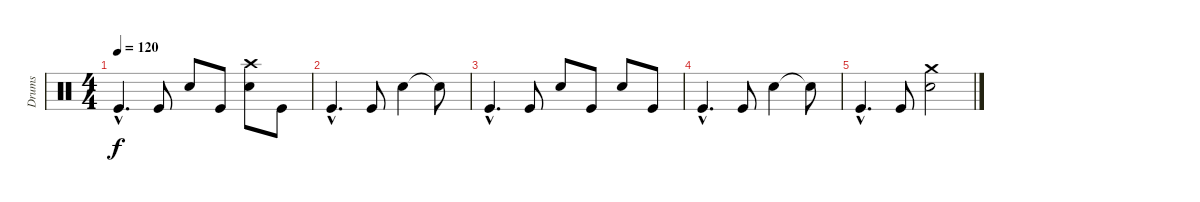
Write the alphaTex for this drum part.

\track ("Drums" "Drums") {instrument percussion}
\staff {score}
\articulation defaults
\ts (4 4)
\tempo 120
\clef neutral
\ks c "Kick (hit)"{hac}.4{d dy f} "Kick (hit)".8 "Electric Snare (hit)".8 "Kick (hit)".8
("Electric Snare (hit)" "Crash high (hit)").8 "Kick (hit)".8 |
"Kick (hit)"{hac}.4{d} "Kick (hit)".8 "Electric Snare (hit)".4 "Snare (hit)"{t}.8 |
"Kick (hit)"{hac}.4{d} "Kick (hit)".8 "Electric Snare (hit)".8 "Kick (hit)".8 "Electric Snare (hit)".8 "Kick (hit)".8 |
"Kick (hit)"{hac}.4{d} "Kick (hit)".8 "Electric Snare (hit)".4 "Snare (hit)"{t}.8 |
"Kick (hit)"{hac}.4{d} "Kick (hit)".8 ("Electric Snare (hit)" "Crash medium (hit)").2
